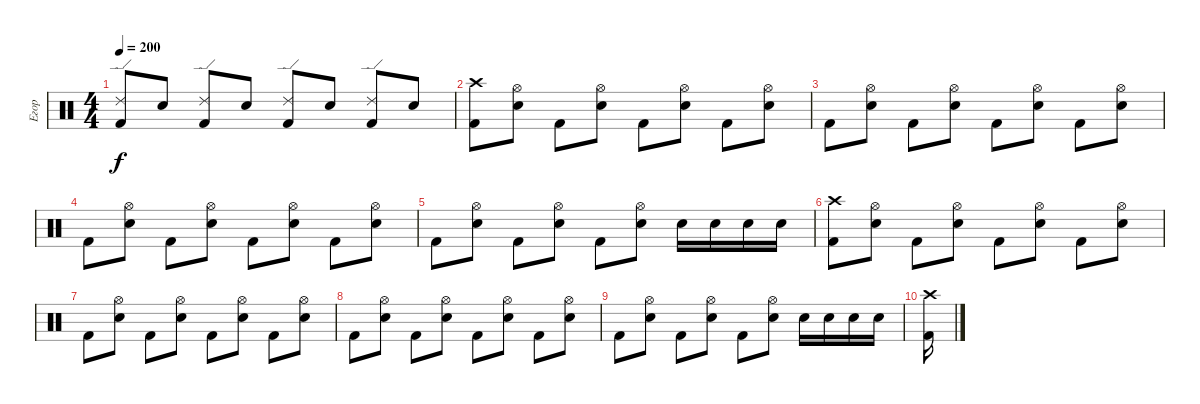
\track ("Егор" "Егор") {instrument percussion}
\staff {score}
\articulation defaults
\ts (4 4)
\tempo 200
\clef neutral
\ks c
("Kick (hit) 2" "Ride (edge) 2").8{dy f} "Snare (hit) 2".8 ("Kick (hit) 2" "Ride (edge) 2").8 "Snare (hit) 2".8 ("Kick (hit) 2" "Ride (edge) 2").8 "Snare (hit) 2".8 ("Kick (hit) 2" "Ride (edge) 2").8 "Snare (hit) 2".8 |
("Crash high (hit)" "Kick (hit) 2").8 ("Hi-Hat (open)" "Snare (hit) 2").8 "Kick (hit) 2".8 ("Hi-Hat (open)" "Snare (hit) 2").8 "Kick (hit) 2".8 ("Hi-Hat (open)" "Snare (hit) 2").8 "Kick (hit) 2".8 ("Hi-Hat (open)" "Snare (hit) 2").8 |
"Kick (hit) 2".8 ("Hi-Hat (open)" "Snare (hit) 2").8 "Kick (hit) 2".8 ("Hi-Hat (open)" "Snare (hit) 2").8 "Kick (hit) 2".8 ("Hi-Hat (open)" "Snare (hit) 2").8 "Kick (hit) 2".8 ("Hi-Hat (open)" "Snare (hit) 2").8 |
"Kick (hit) 2".8 ("Hi-Hat (open)" "Snare (hit) 2").8 "Kick (hit) 2".8 ("Hi-Hat (open)" "Snare (hit) 2").8 "Kick (hit) 2".8 ("Hi-Hat (open)" "Snare (hit) 2").8 "Kick (hit) 2".8 ("Hi-Hat (open)" "Snare (hit) 2").8 |
"Kick (hit) 2".8 ("Hi-Hat (open)" "Snare (hit) 2").8 "Kick (hit) 2".8 ("Hi-Hat (open)" "Snare (hit) 2").8 "Kick (hit) 2".8 ("Hi-Hat (open)" "Snare (hit) 2").8 "Snare (hit) 2".16 "Snare (hit) 2".16 "Snare (hit) 2".16 "Snare (hit) 2".16 |
("Crash high (hit)" "Kick (hit) 2").8 ("Hi-Hat (open)" "Snare (hit) 2").8 "Kick (hit) 2".8 ("Hi-Hat (open)" "Snare (hit) 2").8 "Kick (hit) 2".8 ("Hi-Hat (open)" "Snare (hit) 2").8 "Kick (hit) 2".8 ("Hi-Hat (open)" "Snare (hit) 2").8 |
"Kick (hit) 2".8 ("Hi-Hat (open)" "Snare (hit) 2").8 "Kick (hit) 2".8 ("Hi-Hat (open)" "Snare (hit) 2").8 "Kick (hit) 2".8 ("Hi-Hat (open)" "Snare (hit) 2").8 "Kick (hit) 2".8 ("Hi-Hat (open)" "Snare (hit) 2").8 |
"Kick (hit) 2".8 ("Hi-Hat (open)" "Snare (hit) 2").8 "Kick (hit) 2".8 ("Hi-Hat (open)" "Snare (hit) 2").8 "Kick (hit) 2".8 ("Hi-Hat (open)" "Snare (hit) 2").8 "Kick (hit) 2".8 ("Hi-Hat (open)" "Snare (hit) 2").8 |
"Kick (hit) 2".8 ("Hi-Hat (open)" "Snare (hit) 2").8 "Kick (hit) 2".8 ("Hi-Hat (open)" "Snare (hit) 2").8 "Kick (hit) 2".8 ("Hi-Hat (open)" "Snare (hit) 2").8 "Snare (hit) 2".16 "Snare (hit) 2".16 "Snare (hit) 2".16 "Snare (hit) 2".16 |
("Kick (hit) 2" "Crash high (hit)").16
